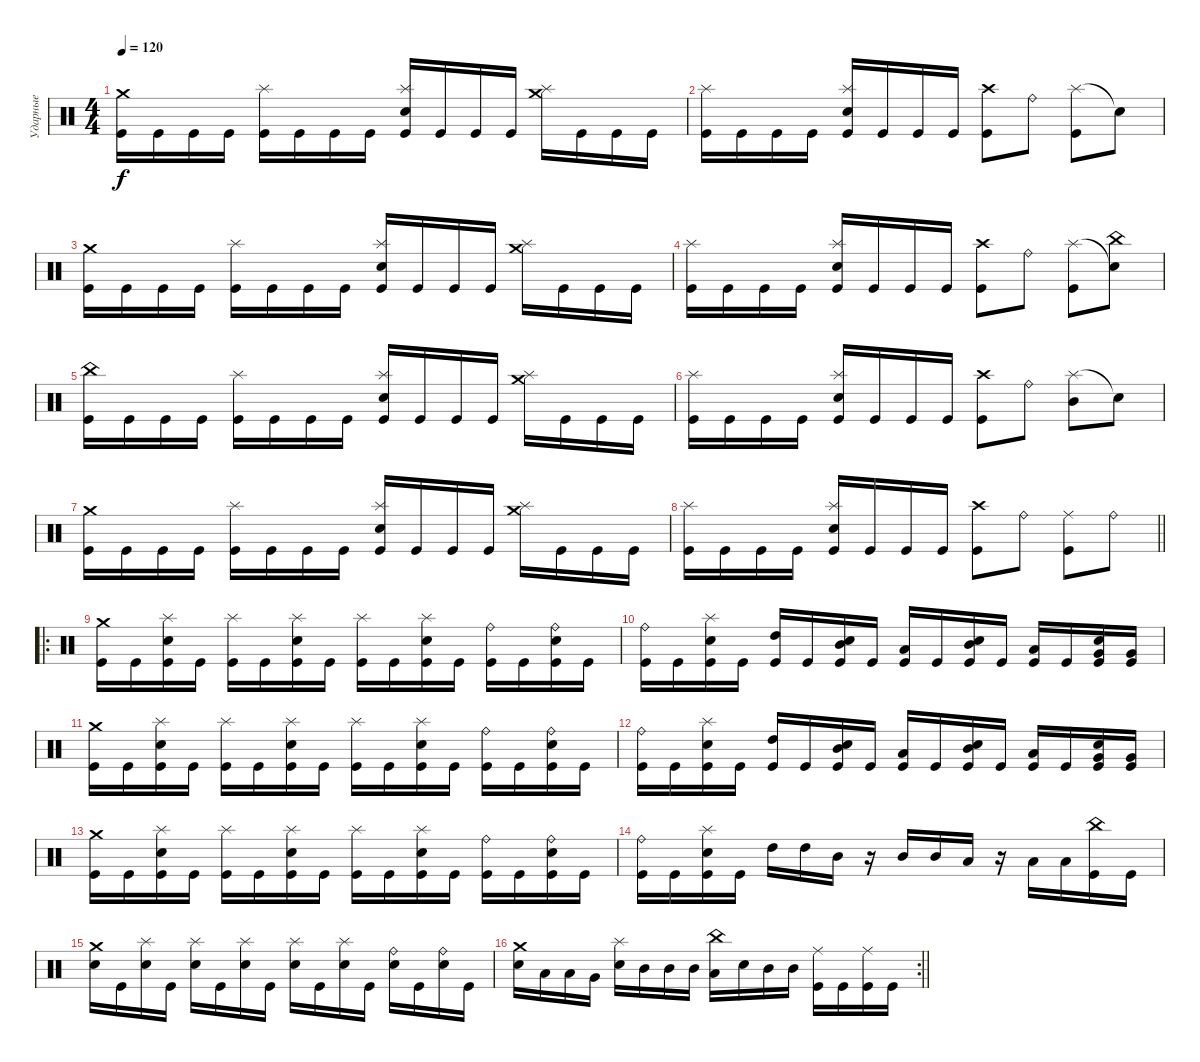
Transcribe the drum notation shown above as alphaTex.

\track ("Ударные" "Ударные") {instrument percussion}
\staff {score}
\articulation defaults
\ts (4 4)
\tempo 120
\clef neutral
\ks c
("Crash medium (hit)" "Kick (hit)").16{dy f} "Kick (hit)".16 "Kick (hit)".16 "Kick (hit)".16 ("Kick (hit)" "Splash (hit)").16 "Kick (hit)".16 "Kick (hit)".16 "Kick (hit)".16 ("Splash (hit)" "Electric Snare (hit)" "Kick (hit)").16 "Kick (hit)".16 "Kick (hit)".16 "Kick (hit)".16 ("Crash medium (hit)" "Splash (hit)").16 "Kick (hit)".16 "Kick (hit)".16 "Kick (hit)".16 |
("Kick (hit)" "Splash (hit)").16 "Kick (hit)".16 "Kick (hit)".16 "Kick (hit)".16 ("Splash (hit)" "Electric Snare (hit)" "Kick (hit)").16 "Kick (hit)".16 "Kick (hit)".16 "Kick (hit)".16 ("Crash high (hit)" "Kick (hit)").8 "Ride (bell)".8 ("Splash (hit)" "Kick (hit)").8 "Snare (hit)"{t}.8 |
("Crash medium (hit)" "Kick (hit)").16 "Kick (hit)".16 "Kick (hit)".16 "Kick (hit)".16 ("Kick (hit)" "Splash (hit)").16 "Kick (hit)".16 "Kick (hit)".16 "Kick (hit)".16 ("Splash (hit)" "Electric Snare (hit)" "Kick (hit)").16 "Kick (hit)".16 "Kick (hit)".16 "Kick (hit)".16 ("Crash medium (hit)" "Splash (hit)").16 "Kick (hit)".16 "Kick (hit)".16 "Kick (hit)".16 |
("Kick (hit)" "Splash (hit)").16 "Kick (hit)".16 "Kick (hit)".16 "Kick (hit)".16 ("Splash (hit)" "Electric Snare (hit)" "Kick (hit)").16 "Kick (hit)".16 "Kick (hit)".16 "Kick (hit)".16 ("Crash high (hit)" "Kick (hit)").8 "Ride (bell)".8 ("Splash (hit)" "Kick (hit)").8 ("Snare (hit)"{t} "China (hit)").8 |
("China (hit)" "Kick (hit)").16 "Kick (hit)".16 "Kick (hit)".16 "Kick (hit)".16 ("Kick (hit)" "Splash (hit)").16 "Kick (hit)".16 "Kick (hit)".16 "Kick (hit)".16 ("Splash (hit)" "Electric Snare (hit)" "Kick (hit)").16 "Kick (hit)".16 "Kick (hit)".16 "Kick (hit)".16 ("Crash medium (hit)" "Splash (hit)").16 "Kick (hit)".16 "Kick (hit)".16 "Kick (hit)".16 |
("Kick (hit)" "Splash (hit)").16 "Kick (hit)".16 "Kick (hit)".16 "Kick (hit)".16 ("Splash (hit)" "Electric Snare (hit)" "Kick (hit)").16 "Kick (hit)".16 "Kick (hit)".16 "Kick (hit)".16 ("Crash high (hit)" "Kick (hit)").8 "Ride (bell)".8 ("Splash (hit)" "Mid Tom (hit)").8 "Snare (hit)"{t}.8 |
("Crash medium (hit)" "Kick (hit)").16 "Kick (hit)".16 "Kick (hit)".16 "Kick (hit)".16 ("Kick (hit)" "Splash (hit)").16 "Kick (hit)".16 "Kick (hit)".16 "Kick (hit)".16 ("Splash (hit)" "Electric Snare (hit)" "Kick (hit)").16 "Kick (hit)".16 "Kick (hit)".16 "Kick (hit)".16 ("Crash medium (hit)" "Splash (hit)").16 "Kick (hit)".16 "Kick (hit)".16 "Kick (hit)".16 |
\barLineRight lightlight
("Kick (hit)" "Splash (hit)").16 "Kick (hit)".16 "Kick (hit)".16 "Kick (hit)".16 ("Splash (hit)" "Electric Snare (hit)" "Kick (hit)").16 "Kick (hit)".16 "Kick (hit)".16 "Kick (hit)".16 ("Crash high (hit)" "Kick (hit)").8 "Ride (bell)".8 ("Ride (middle)" "Kick (hit)").8 "Ride (bell)".8 |
\ro
\section ("" " ")
("Crash medium (hit)" "Kick (hit)").16 "Kick (hit)".16 ("Splash (hit)" "Electric Snare (hit)" "Kick (hit)").16 "Kick (hit)".16 ("Splash (hit)" "Kick (hit)").16 "Kick (hit)".16 ("Splash (hit)" "Electric Snare (hit)" "Kick (hit)").16 "Kick (hit)".16 ("Splash (hit)" "Kick (hit)").16 "Kick (hit)".16 ("Splash (hit)" "Electric Snare (hit)" "Kick (hit)").16 "Kick (hit)".16 ("Ride (bell)" "Kick (hit)").16 "Kick (hit)".16 ("Ride (bell)" "Electric Snare (hit)" "Kick (hit)").16 "Kick (hit)".16 |
("Ride (bell)" "Kick (hit)").16 "Kick (hit)".16 ("Splash (hit)" "Electric Snare (hit)" "Kick (hit)").16 "Kick (hit)".16 ("High Tom (hit)" "Kick (hit)").16 "Kick (hit)".16 ("Mid Tom (hit)" "Electric Snare (hit)" "Kick (hit)").16 "Kick (hit)".16 ("Low Tom (hit)" "Kick (hit)").16 "Kick (hit)".16 ("Mid Tom (hit)" "Electric Snare (hit)" "Kick (hit)").16 "Kick (hit)".16 ("Low Tom (hit)" "Kick (hit)").16 "Kick (hit)".16 ("Very Low Tom (hit)" "Electric Snare (hit)" "Kick (hit)").16 ("Very Low Tom (hit)" "Kick (hit)").16 |
("Crash medium (hit)" "Kick (hit)").16 "Kick (hit)".16 ("Splash (hit)" "Electric Snare (hit)" "Kick (hit)").16 "Kick (hit)".16 ("Splash (hit)" "Kick (hit)").16 "Kick (hit)".16 ("Splash (hit)" "Electric Snare (hit)" "Kick (hit)").16 "Kick (hit)".16 ("Splash (hit)" "Kick (hit)").16 "Kick (hit)".16 ("Splash (hit)" "Electric Snare (hit)" "Kick (hit)").16 "Kick (hit)".16 ("Ride (bell)" "Kick (hit)").16 "Kick (hit)".16 ("Ride (bell)" "Electric Snare (hit)" "Kick (hit)").16 "Kick (hit)".16 |
("Ride (bell)" "Kick (hit)").16 "Kick (hit)".16 ("Splash (hit)" "Electric Snare (hit)" "Kick (hit)").16 "Kick (hit)".16 ("High Tom (hit)" "Kick (hit)").16 "Kick (hit)".16 ("Mid Tom (hit)" "Electric Snare (hit)" "Kick (hit)").16 "Kick (hit)".16 ("Low Tom (hit)" "Kick (hit)").16 "Kick (hit)".16 ("Mid Tom (hit)" "Electric Snare (hit)" "Kick (hit)").16 "Kick (hit)".16 ("Low Tom (hit)" "Kick (hit)").16 "Kick (hit)".16 ("Very Low Tom (hit)" "Electric Snare (hit)" "Kick (hit)").16 ("Very Low Tom (hit)" "Kick (hit)").16 |
("Crash medium (hit)" "Kick (hit)").16 "Kick (hit)".16 ("Splash (hit)" "Electric Snare (hit)" "Kick (hit)").16 "Kick (hit)".16 ("Splash (hit)" "Kick (hit)").16 "Kick (hit)".16 ("Splash (hit)" "Electric Snare (hit)" "Kick (hit)").16 "Kick (hit)".16 ("Splash (hit)" "Kick (hit)").16 "Kick (hit)".16 ("Splash (hit)" "Electric Snare (hit)" "Kick (hit)").16 "Kick (hit)".16 ("Ride (bell)" "Kick (hit)").16 "Kick (hit)".16 ("Ride (bell)" "Electric Snare (hit)" "Kick (hit)").16 "Kick (hit)".16 |
("Ride (bell)" "Kick (hit)").16 "Kick (hit)".16 ("Splash (hit)" "Electric Snare (hit)" "Kick (hit)").16 "Kick (hit)".16 "High Tom (hit)".16 "High Tom (hit)".16 "Mid Tom (hit)".16 r.16 "Mid Tom (hit)".16 "Mid Tom (hit)".16 "Low Tom (hit)".16 r.16 "Low Tom (hit)".16 "Low Tom (hit)".16 ("China (hit)" "Kick (hit)").16 "Kick (hit)".16 |
("Crash medium (hit)" "Electric Snare (hit)").16 "Kick (hit)".16 ("Splash (hit)" "Electric Snare (hit)").16 "Kick (hit)".16 ("Splash (hit)" "Electric Snare (hit)").16 "Kick (hit)".16 ("Splash (hit)" "Electric Snare (hit)").16 "Kick (hit)".16 ("Splash (hit)" "Electric Snare (hit)").16 "Kick (hit)".16 ("Splash (hit)" "Electric Snare (hit)").16 "Kick (hit)".16 ("Ride (bell)" "Electric Snare (hit)").16 "Kick (hit)".16 ("Ride (bell)" "Electric Snare (hit)").16 "Kick (hit)".16 |
\rc 2
\barLineRight lightlight
("Crash medium (hit)" "Electric Snare (hit)").16 "Low Tom (hit)".16 "Low Tom (hit)".16 "Very Low Tom (hit)".16 ("Splash (hit)" "Electric Snare (hit)").16 "Mid Tom (hit)".16 "Mid Tom (hit)".16 "Mid Tom (hit)".16 ("China (hit)" "Low Tom (hit)").16 "Electric Snare (hit)".16 "Mid Tom (hit)".16 "Mid Tom (hit)".16 ("Ride (middle)" "Kick (hit)").16 "Kick (hit)".16 ("Ride (middle)" "Kick (hit)").16 "Kick (hit)".16
